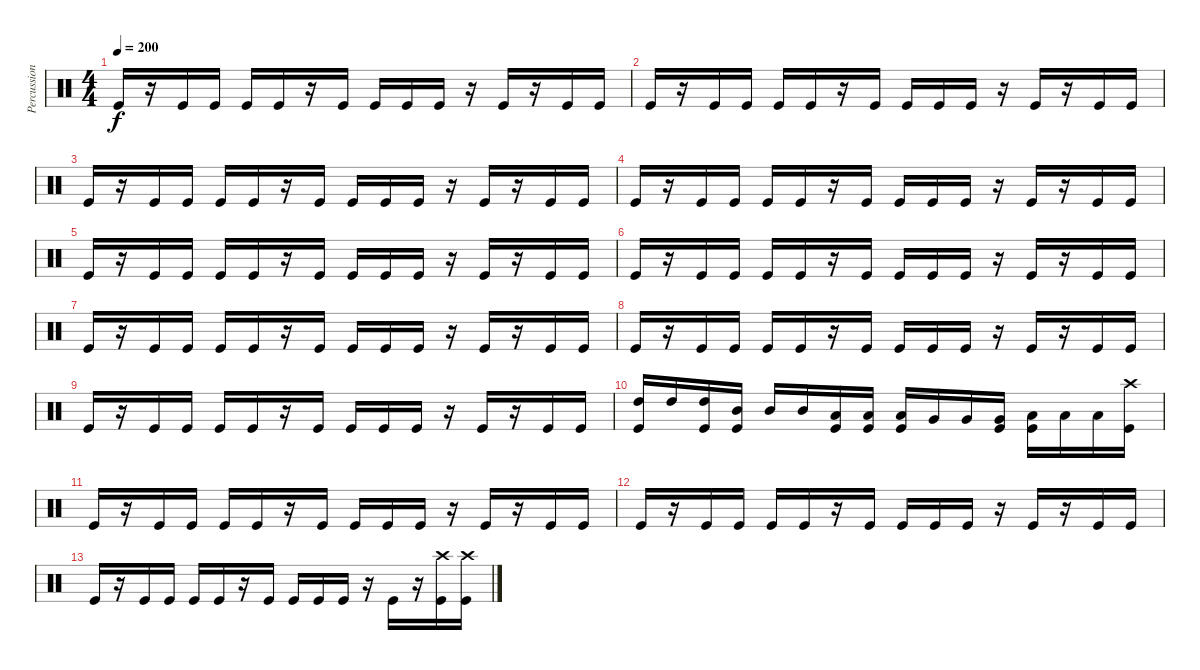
\track ("Percussion" "Percussion") {instrument percussion}
\staff {score}
\articulation defaults
\ts (4 4)
\tempo 200
\clef neutral
\ks c "Kick (hit)".16{dy f}
r.16 "Kick (hit)".16 "Kick (hit)".16 "Kick (hit)".16 "Kick (hit)".16 r.16 "Kick (hit)".16 "Kick (hit)".16 "Kick (hit)".16 "Kick (hit)".16 r.16 "Kick (hit)".16 r.16 "Kick (hit)".16 "Kick (hit)".16 |
"Kick (hit)".16 r.16 "Kick (hit)".16 "Kick (hit)".16 "Kick (hit)".16 "Kick (hit)".16 r.16 "Kick (hit)".16 "Kick (hit)".16 "Kick (hit)".16 "Kick (hit)".16 r.16 "Kick (hit)".16 r.16 "Kick (hit)".16 "Kick (hit)".16 |
"Kick (hit)".16 r.16 "Kick (hit)".16 "Kick (hit)".16 "Kick (hit)".16 "Kick (hit)".16 r.16 "Kick (hit)".16 "Kick (hit)".16 "Kick (hit)".16 "Kick (hit)".16 r.16 "Kick (hit)".16 r.16 "Kick (hit)".16 "Kick (hit)".16 |
"Kick (hit)".16 r.16 "Kick (hit)".16 "Kick (hit)".16 "Kick (hit)".16 "Kick (hit)".16 r.16 "Kick (hit)".16 "Kick (hit)".16 "Kick (hit)".16 "Kick (hit)".16 r.16 "Kick (hit)".16 r.16 "Kick (hit)".16 "Kick (hit)".16 |
"Kick (hit)".16 r.16 "Kick (hit)".16 "Kick (hit)".16 "Kick (hit)".16 "Kick (hit)".16 r.16 "Kick (hit)".16 "Kick (hit)".16 "Kick (hit)".16 "Kick (hit)".16 r.16 "Kick (hit)".16 r.16 "Kick (hit)".16 "Kick (hit)".16 |
"Kick (hit)".16 r.16 "Kick (hit)".16 "Kick (hit)".16 "Kick (hit)".16 "Kick (hit)".16 r.16 "Kick (hit)".16 "Kick (hit)".16 "Kick (hit)".16 "Kick (hit)".16 r.16 "Kick (hit)".16 r.16 "Kick (hit)".16 "Kick (hit)".16 |
"Kick (hit)".16 r.16 "Kick (hit)".16 "Kick (hit)".16 "Kick (hit)".16 "Kick (hit)".16 r.16 "Kick (hit)".16 "Kick (hit)".16 "Kick (hit)".16 "Kick (hit)".16 r.16 "Kick (hit)".16 r.16 "Kick (hit)".16 "Kick (hit)".16 |
"Kick (hit)".16 r.16 "Kick (hit)".16 "Kick (hit)".16 "Kick (hit)".16 "Kick (hit)".16 r.16 "Kick (hit)".16 "Kick (hit)".16 "Kick (hit)".16 "Kick (hit)".16 r.16 "Kick (hit)".16 r.16 "Kick (hit)".16 "Kick (hit)".16 |
"Kick (hit)".16 r.16 "Kick (hit)".16 "Kick (hit)".16 "Kick (hit)".16 "Kick (hit)".16 r.16 "Kick (hit)".16 "Kick (hit)".16 "Kick (hit)".16 "Kick (hit)".16 r.16 "Kick (hit)".16 r.16 "Kick (hit)".16 "Kick (hit)".16 |
("High Tom (hit)" "Kick (hit)").16 "High Tom (hit)".16 ("High Tom (hit)" "Kick (hit)").16 ("Mid Tom (hit)" "Kick (hit)").16 "Mid Tom (hit)".16 "Mid Tom (hit)".16 ("Low Tom (hit)" "Kick (hit)").16 ("Low Tom (hit)" "Kick (hit)").16 ("Low Tom (hit)" "Kick (hit)").16 "Very Low Tom (hit)".16 "Very Low Tom (hit)".16 ("Very Low Tom (hit)" "Kick (hit)").16 ("Low Floor Tom (hit)" "Kick (hit)").16 "Low Floor Tom (hit)".16 "Low Floor Tom (hit)".16 ("Crash high (hit)" "Kick (hit)").16 |
"Kick (hit)".16 r.16 "Kick (hit)".16 "Kick (hit)".16 "Kick (hit)".16 "Kick (hit)".16 r.16 "Kick (hit)".16 "Kick (hit)".16 "Kick (hit)".16 "Kick (hit)".16 r.16 "Kick (hit)".16 r.16 "Kick (hit)".16 "Kick (hit)".16 |
"Kick (hit)".16 r.16 "Kick (hit)".16 "Kick (hit)".16 "Kick (hit)".16 "Kick (hit)".16 r.16 "Kick (hit)".16 "Kick (hit)".16 "Kick (hit)".16 "Kick (hit)".16 r.16 "Kick (hit)".16 r.16 "Kick (hit)".16 "Kick (hit)".16 |
"Kick (hit)".16 r.16 "Kick (hit)".16 "Kick (hit)".16 "Kick (hit)".16 "Kick (hit)".16 r.16 "Kick (hit)".16 "Kick (hit)".16 "Kick (hit)".16 "Kick (hit)".16 r.16 "Kick (hit)".16 r.16 ("Crash high (hit)" "Kick (hit)").16 ("Crash high (hit)" "Kick (hit)").16
